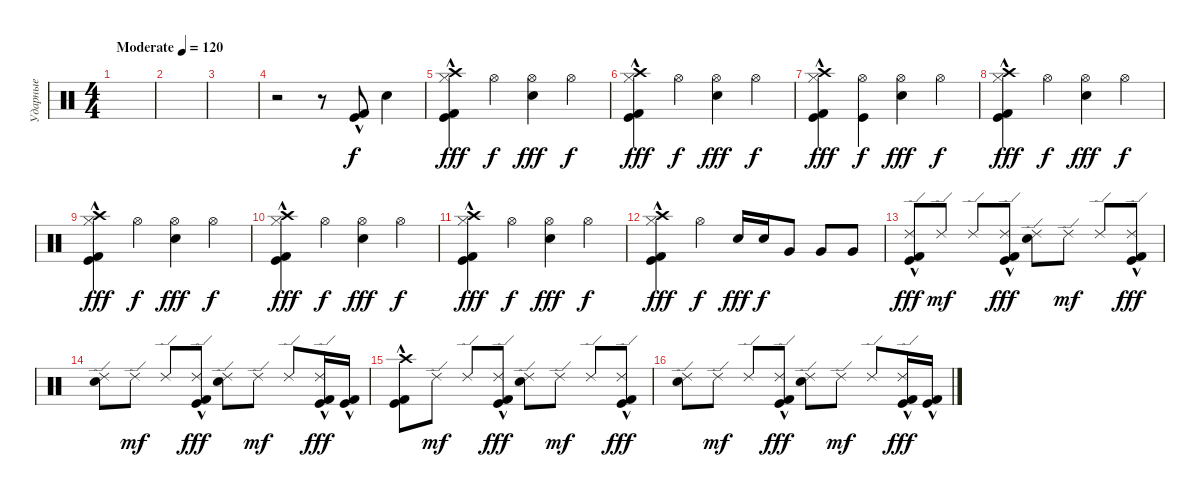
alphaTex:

\track ("Ударные" "Ударные") {instrument percussion}
\staff {score}
\articulation defaults
\ts (4 4)
\tempo (120 "Moderate")
\clef neutral
\ks c
|
|
|
r.2 r.8 ("Kick (hit)"{hac} "Kick (hit) 2"{hac}).8 "Snare (hit) 2".4{dy f} |
("Crash high (hit)" "Hi-Hat (closed)" "Kick (hit)"{hac} "Kick (hit) 2"{hac}).4{dy fff} "Hi-Hat (open)".4{dy f} ("Hi-Hat (open)" "Electric Snare (hit)").4{dy fff} "Hi-Hat (open)".4{dy f} |
("Crash high (hit)" "Hi-Hat (closed)" "Kick (hit)"{hac} "Kick (hit) 2"{hac}).4{dy fff} "Hi-Hat (open)".4{dy f} ("Hi-Hat (open)" "Electric Snare (hit)").4{dy fff} "Hi-Hat (open)".4{dy f} |
("Crash high (hit)" "Hi-Hat (closed)" "Kick (hit)" "Kick (hit) 2"{hac}).4{dy fff} ("Hi-Hat (open)" "Kick (hit)").4{dy f} ("Hi-Hat (open)" "Electric Snare (hit)").4{dy fff} "Hi-Hat (open)".4{dy f} |
("Crash high (hit)" "Hi-Hat (closed)" "Kick (hit)"{hac} "Kick (hit) 2"{hac}).4{dy fff} "Hi-Hat (open)".4{dy f} ("Hi-Hat (open)" "Electric Snare (hit)").4{dy fff} "Hi-Hat (open)".4{dy f} |
("Crash high (hit)" "Hi-Hat (closed)" "Kick (hit)"{hac} "Kick (hit) 2"{hac}).4{dy fff} "Hi-Hat (open)".4{dy f} ("Hi-Hat (open)" "Electric Snare (hit)").4{dy fff} "Hi-Hat (open)".4{dy f} |
("Crash high (hit)" "Hi-Hat (closed)" "Kick (hit)"{hac} "Kick (hit) 2"{hac}).4{dy fff} "Hi-Hat (open)".4{dy f} ("Hi-Hat (open)" "Electric Snare (hit)").4{dy fff} "Hi-Hat (open)".4{dy f} |
("Crash high (hit)" "Hi-Hat (closed)" "Kick (hit)"{hac} "Kick (hit) 2"{hac}).4{dy fff} "Hi-Hat (open)".4{dy f} ("Hi-Hat (open)" "Electric Snare (hit)").4{dy fff} "Hi-Hat (open)".4{dy f} |
("Crash high (hit)" "Hi-Hat (closed)" "Kick (hit)"{hac} "Kick (hit) 2"{hac}).4{dy fff} "Hi-Hat (open)".4{dy f} "Electric Snare (hit)".16{dy fff} "Electric Snare (hit)".16{dy f} "Very Low Tom (hit)".8 "Very Low Tom (hit)".8 "Very Low Tom (hit)".8 |
("Ride (edge) 2" "Kick (hit)"{hac} "Kick (hit) 2"{hac}).8{dy fff} "Ride (edge) 2".8{dy mf} "Ride (edge) 2".8 ("Ride (edge) 2" "Kick (hit)"{hac} "Kick (hit) 2"{hac}).8{dy fff} ("Ride (edge) 2" "Electric Snare (hit)").8 "Ride (edge) 2".8{dy mf} "Ride (edge) 2".8 ("Ride (edge) 2" "Kick (hit)"{hac} "Kick (hit) 2"{hac}).8{dy fff} |
("Ride (edge) 2" "Electric Snare (hit)").8 "Ride (edge) 2".8{dy mf} "Ride (edge) 2".8 ("Ride (edge) 2" "Kick (hit)"{hac} "Kick (hit) 2"{hac}).8{dy fff} ("Ride (edge) 2" "Electric Snare (hit)").8 "Ride (edge) 2".8{dy mf} "Ride (edge) 2".8 ("Ride (edge) 2" "Kick (hit)"{hac} "Kick (hit) 2"{hac}).16{dy fff} ("Kick (hit)"{hac} "Kick (hit) 2"{hac}).16 |
("Crash high (hit)" "Kick (hit)"{hac} "Kick (hit) 2"{hac}).8 "Ride (edge) 2".8{dy mf} "Ride (edge) 2".8 ("Ride (edge) 2" "Kick (hit)"{hac} "Kick (hit) 2"{hac}).8{dy fff} ("Ride (edge) 2" "Electric Snare (hit)").8 "Ride (edge) 2".8{dy mf} "Ride (edge) 2".8 ("Ride (edge) 2" "Kick (hit)"{hac} "Kick (hit) 2"{hac}).8{dy fff} |
("Ride (edge) 2" "Electric Snare (hit)").8 "Ride (edge) 2".8{dy mf} "Ride (edge) 2".8 ("Ride (edge) 2" "Kick (hit)"{hac} "Kick (hit) 2"{hac}).8{dy fff} ("Ride (edge) 2" "Electric Snare (hit)").8 "Ride (edge) 2".8{dy mf} "Ride (edge) 2".8 ("Ride (edge) 2" "Kick (hit)"{hac} "Kick (hit) 2"{hac}).16{dy fff} ("Kick (hit)"{hac} "Kick (hit) 2"{hac}).16
